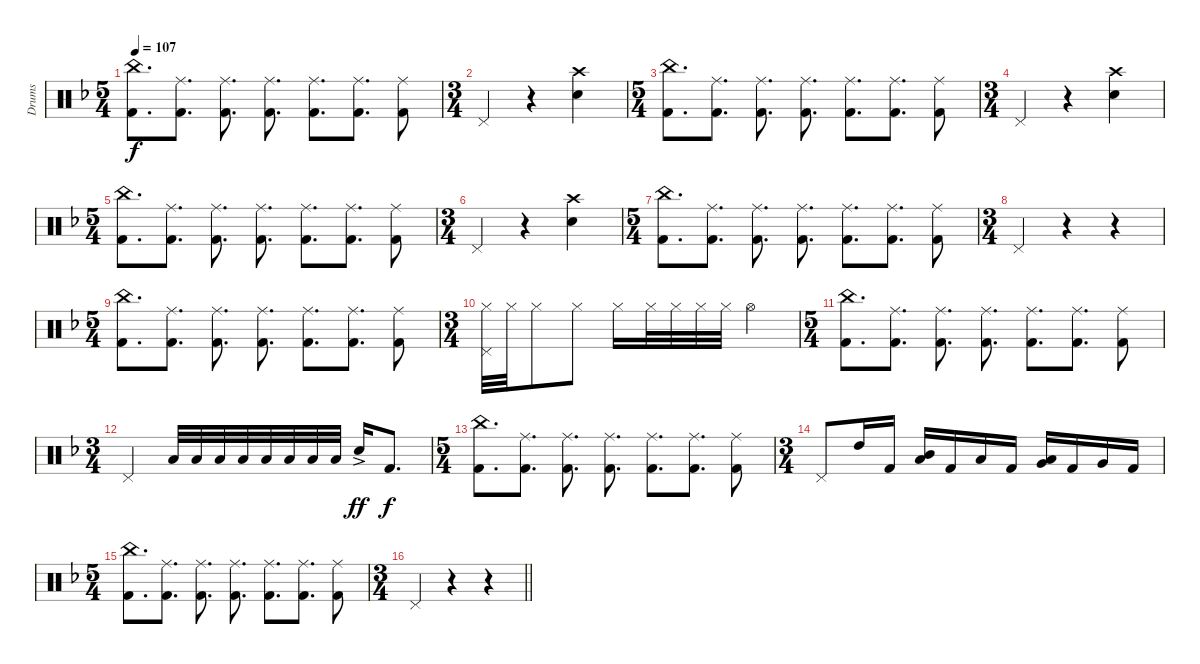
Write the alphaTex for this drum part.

\track ("Drums" "Drums") {instrument percussion}
\staff {score}
\articulation defaults
\ts (5 4)
\tempo 107
\clef neutral
\ks dminor
("China (hit)" "Kick (hit) 2").8{d dy f} ("Ride (middle)" "Kick (hit) 2").8{d} ("Ride (middle)" "Kick (hit) 2").8{d} ("Ride (middle)" "Kick (hit) 2").8{d} ("Ride (middle)" "Kick (hit) 2").8{d} ("Ride (middle)" "Kick (hit) 2").8{d} ("Ride (middle)" "Kick (hit) 2").8 |
\ts (3 4)
"Pedal Hi-Hat (hit)".4 r.4 ("Crash high (hit)" "Snare (hit) 2").4 |
\ts (5 4)
("China (hit)" "Kick (hit) 2").8{d} ("Ride (middle)" "Kick (hit) 2").8{d} ("Ride (middle)" "Kick (hit) 2").8{d} ("Ride (middle)" "Kick (hit) 2").8{d} ("Ride (middle)" "Kick (hit) 2").8{d} ("Ride (middle)" "Kick (hit) 2").8{d} ("Ride (middle)" "Kick (hit) 2").8 |
\ts (3 4)
"Pedal Hi-Hat (hit)".4 r.4 ("Crash high (hit)" "Snare (hit) 2").4 |
\ts (5 4)
("China (hit)" "Kick (hit) 2").8{d} ("Ride (middle)" "Kick (hit) 2").8{d} ("Ride (middle)" "Kick (hit) 2").8{d} ("Ride (middle)" "Kick (hit) 2").8{d} ("Ride (middle)" "Kick (hit) 2").8{d} ("Ride (middle)" "Kick (hit) 2").8{d} ("Ride (middle)" "Kick (hit) 2").8 |
\ts (3 4)
"Pedal Hi-Hat (hit)".4 r.4 ("Crash high (hit)" "Snare (hit) 2").4 |
\ts (5 4)
("China (hit)" "Kick (hit) 2").8{d} ("Ride (middle)" "Kick (hit) 2").8{d} ("Ride (middle)" "Kick (hit) 2").8{d} ("Ride (middle)" "Kick (hit) 2").8{d} ("Ride (middle)" "Kick (hit) 2").8{d} ("Ride (middle)" "Kick (hit) 2").8{d} ("Ride (middle)" "Kick (hit) 2").8 |
\ts (3 4)
"Pedal Hi-Hat (hit)".4 r.4 r.4 |
\ts (5 4)
("China (hit)" "Kick (hit) 2").8{d} ("Ride (middle)" "Kick (hit) 2").8{d} ("Ride (middle)" "Kick (hit) 2").8{d} ("Ride (middle)" "Kick (hit) 2").8{d} ("Ride (middle)" "Kick (hit) 2").8{d} ("Ride (middle)" "Kick (hit) 2").8{d} ("Ride (middle)" "Kick (hit) 2").8 |
\ts (3 4)
("Hi-Hat (closed)" "Pedal Hi-Hat (hit)").32 "Hi-Hat (closed)".32 "Hi-Hat (closed)".8 "Hi-Hat (closed)".8 "Hi-Hat (closed)".16 "Hi-Hat (closed)".32 "Hi-Hat (closed)".32 "Hi-Hat (closed)".32 "Hi-Hat (closed)".32 "Hi-Hat (open)".4 |
\ts (5 4)
("China (hit)" "Kick (hit) 2").8{d} ("Ride (middle)" "Kick (hit) 2").8{d} ("Ride (middle)" "Kick (hit) 2").8{d} ("Ride (middle)" "Kick (hit) 2").8{d} ("Ride (middle)" "Kick (hit) 2").8{d} ("Ride (middle)" "Kick (hit) 2").8{d} ("Ride (middle)" "Kick (hit) 2").8 |
\ts (3 4)
"Pedal Hi-Hat (hit)".4 "Low Tom (hit)".32 "Low Tom (hit)".32 "Low Tom (hit)".32 "Low Tom (hit)".32 "Low Tom (hit)".32 "Low Tom (hit)".32 "Low Tom (hit)".32 "Low Tom (hit)".32 "Snare (hit) 2"{ac}.16{dy ff} "Kick (hit) 2".8{d dy f} |
\ts (5 4)
("China (hit)" "Kick (hit) 2").8{d} ("Ride (middle)" "Kick (hit) 2").8{d} ("Ride (middle)" "Kick (hit) 2").8{d} ("Ride (middle)" "Kick (hit) 2").8{d} ("Ride (middle)" "Kick (hit) 2").8{d} ("Ride (middle)" "Kick (hit) 2").8{d} ("Ride (middle)" "Kick (hit) 2").8 |
\ts (3 4)
"Pedal Hi-Hat (hit)".8 "High Tom (hit)".16 "Kick (hit) 2".16 ("Mid Tom (hit)" "Low Tom (hit)").16 "Kick (hit) 2".16 "Low Tom (hit)".16 "Kick (hit) 2".16 ("Low Tom (hit)" "Very Low Tom (hit)").16 "Kick (hit) 2".16 "Very Low Tom (hit)".16 "Kick (hit) 2".16 |
\ts (5 4)
("China (hit)" "Kick (hit) 2").8{d} ("Ride (middle)" "Kick (hit) 2").8{d} ("Ride (middle)" "Kick (hit) 2").8{d} ("Ride (middle)" "Kick (hit) 2").8{d} ("Ride (middle)" "Kick (hit) 2").8{d} ("Ride (middle)" "Kick (hit) 2").8{d} ("Ride (middle)" "Kick (hit) 2").8 |
\ts (3 4)
\barLineRight lightlight "Pedal Hi-Hat (hit)".4
r.4 r.4
